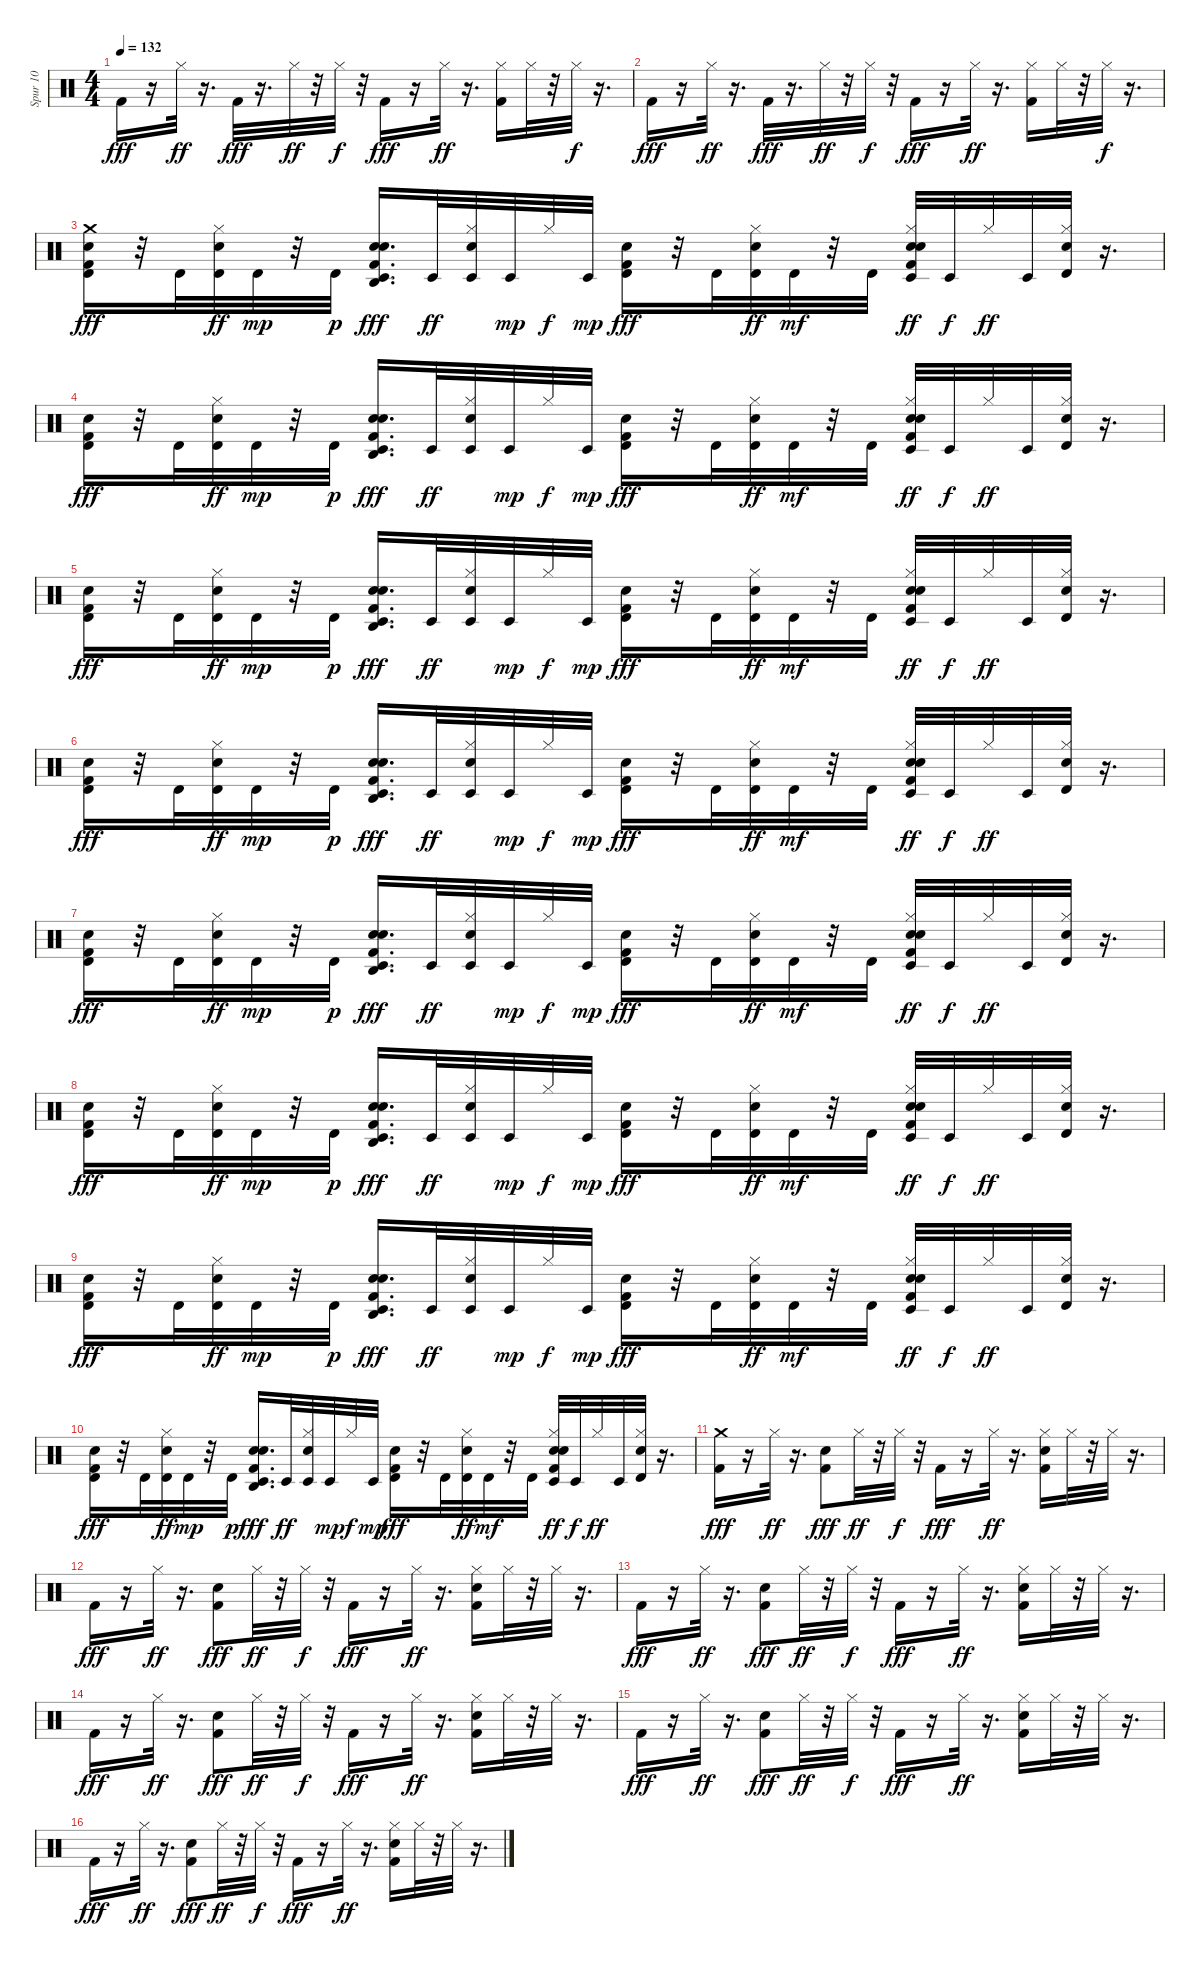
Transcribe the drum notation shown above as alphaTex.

\track ("Spur 10" "Spur 10") {instrument percussion}
\staff {score}
\articulation defaults
\ts (4 4)
\tempo 132
\clef neutral
\ks c "Kick (hit) 2".16{dy fff}
r.16 "Hi-Hat (closed)".32{dy ff} r.16{d} "Kick (hit) 2".32{dy fff} r.16{d} "Hi-Hat (closed)".32{dy ff} r.32 "Hi-Hat (closed)".32{dy f} r.32 "Kick (hit) 2".16{dy fff} r.16 "Hi-Hat (closed)".32{dy ff} r.16{d} ("Kick (hit) 2" "Hi-Hat (closed)").16 "Hi-Hat (closed)".32 r.32 "Hi-Hat (closed)".32{dy f} r.16{d} |
"Kick (hit) 2".16{dy fff} r.16 "Hi-Hat (closed)".32{dy ff} r.16{d} "Kick (hit) 2".32{dy fff} r.16{d} "Hi-Hat (closed)".32{dy ff} r.32 "Hi-Hat (closed)".32{dy f} r.32 "Kick (hit) 2".16{dy fff} r.16 "Hi-Hat (closed)".32{dy ff} r.16{d} ("Kick (hit) 2" "Hi-Hat (closed)").16 "Hi-Hat (closed)".32 r.32 "Hi-Hat (closed)".32{dy f} r.16{d} |
("Crash medium (hit)" "Hand Clap (hit)" "Timbale high (hit)" "Kick (hit) 2").16{dy fff} r.32 "Timbale high (hit)".32 ("Hand Clap (hit)" "Timbale high (hit)" "Hi-Hat (closed)").32{dy ff} "Timbale high (hit)".32{dy mp} r.32 "Timbale high (hit)".32{dy p} ("Hand Clap (hit)" "Timbale low (hit)" "Agogo high (hit)" "Snare (hit) 2" "Kick (hit) 2").16{d dy fff} "Timbale low (hit)".32{dy ff} ("Hand Clap (hit)" "Timbale low (hit)" "Hi-Hat (closed)").32 "Timbale low (hit)".32{dy mp} "Hi-Hat (closed)".32{dy f} "Timbale low (hit)".32{dy mp} ("Hand Clap (hit)" "Timbale high (hit)" "Kick (hit) 2").16{dy fff} r.32 "Timbale high (hit)".32 ("Hand Clap (hit)" "Timbale high (hit)" "Hi-Hat (closed)").32{dy ff} "Timbale high (hit)".32{dy mf} r.32 "Timbale high (hit)".32 ("Hand Clap (hit)" "Timbale low (hit)" "Snare (hit) 2" "Kick (hit) 2" "Hi-Hat (closed)").32{dy ff} "Timbale low (hit)".32{dy f} "Hi-Hat (closed)".32{dy ff} "Timbale low (hit)".32 ("Hand Clap (hit)" "Timbale high (hit)" "Hi-Hat (closed)").32 r.16{d} |
("Hand Clap (hit)" "Timbale high (hit)" "Kick (hit) 2").16{dy fff} r.32 "Timbale high (hit)".32 ("Hand Clap (hit)" "Timbale high (hit)" "Hi-Hat (closed)").32{dy ff} "Timbale high (hit)".32{dy mp} r.32 "Timbale high (hit)".32{dy p} ("Hand Clap (hit)" "Timbale low (hit)" "Agogo high (hit)" "Snare (hit) 2" "Kick (hit) 2").16{d dy fff} "Timbale low (hit)".32{dy ff} ("Hand Clap (hit)" "Timbale low (hit)" "Hi-Hat (closed)").32 "Timbale low (hit)".32{dy mp} "Hi-Hat (closed)".32{dy f} "Timbale low (hit)".32{dy mp} ("Hand Clap (hit)" "Timbale high (hit)" "Kick (hit) 2").16{dy fff} r.32 "Timbale high (hit)".32 ("Hand Clap (hit)" "Timbale high (hit)" "Hi-Hat (closed)").32{dy ff} "Timbale high (hit)".32{dy mf} r.32 "Timbale high (hit)".32 ("Hand Clap (hit)" "Timbale low (hit)" "Snare (hit) 2" "Kick (hit) 2" "Hi-Hat (closed)").32{dy ff} "Timbale low (hit)".32{dy f} "Hi-Hat (closed)".32{dy ff} "Timbale low (hit)".32 ("Hand Clap (hit)" "Timbale high (hit)" "Hi-Hat (closed)").32 r.16{d} |
("Hand Clap (hit)" "Timbale high (hit)" "Kick (hit) 2").16{dy fff} r.32 "Timbale high (hit)".32 ("Hand Clap (hit)" "Timbale high (hit)" "Hi-Hat (closed)").32{dy ff} "Timbale high (hit)".32{dy mp} r.32 "Timbale high (hit)".32{dy p} ("Hand Clap (hit)" "Timbale low (hit)" "Agogo high (hit)" "Snare (hit) 2" "Kick (hit) 2").16{d dy fff} "Timbale low (hit)".32{dy ff} ("Hand Clap (hit)" "Timbale low (hit)" "Hi-Hat (closed)").32 "Timbale low (hit)".32{dy mp} "Hi-Hat (closed)".32{dy f} "Timbale low (hit)".32{dy mp} ("Hand Clap (hit)" "Timbale high (hit)" "Kick (hit) 2").16{dy fff} r.32 "Timbale high (hit)".32 ("Hand Clap (hit)" "Timbale high (hit)" "Hi-Hat (closed)").32{dy ff} "Timbale high (hit)".32{dy mf} r.32 "Timbale high (hit)".32 ("Hand Clap (hit)" "Timbale low (hit)" "Snare (hit) 2" "Kick (hit) 2" "Hi-Hat (closed)").32{dy ff} "Timbale low (hit)".32{dy f} "Hi-Hat (closed)".32{dy ff} "Timbale low (hit)".32 ("Hand Clap (hit)" "Timbale high (hit)" "Hi-Hat (closed)").32 r.16{d} |
("Hand Clap (hit)" "Timbale high (hit)" "Kick (hit) 2").16{dy fff} r.32 "Timbale high (hit)".32 ("Hand Clap (hit)" "Timbale high (hit)" "Hi-Hat (closed)").32{dy ff} "Timbale high (hit)".32{dy mp} r.32 "Timbale high (hit)".32{dy p} ("Hand Clap (hit)" "Timbale low (hit)" "Agogo high (hit)" "Snare (hit) 2" "Kick (hit) 2").16{d dy fff} "Timbale low (hit)".32{dy ff} ("Hand Clap (hit)" "Timbale low (hit)" "Hi-Hat (closed)").32 "Timbale low (hit)".32{dy mp} "Hi-Hat (closed)".32{dy f} "Timbale low (hit)".32{dy mp} ("Hand Clap (hit)" "Timbale high (hit)" "Kick (hit) 2").16{dy fff} r.32 "Timbale high (hit)".32 ("Hand Clap (hit)" "Timbale high (hit)" "Hi-Hat (closed)").32{dy ff} "Timbale high (hit)".32{dy mf} r.32 "Timbale high (hit)".32 ("Hand Clap (hit)" "Timbale low (hit)" "Snare (hit) 2" "Kick (hit) 2" "Hi-Hat (closed)").32{dy ff} "Timbale low (hit)".32{dy f} "Hi-Hat (closed)".32{dy ff} "Timbale low (hit)".32 ("Hand Clap (hit)" "Timbale high (hit)" "Hi-Hat (closed)").32 r.16{d} |
("Hand Clap (hit)" "Timbale high (hit)" "Kick (hit) 2").16{dy fff} r.32 "Timbale high (hit)".32 ("Hand Clap (hit)" "Timbale high (hit)" "Hi-Hat (closed)").32{dy ff} "Timbale high (hit)".32{dy mp} r.32 "Timbale high (hit)".32{dy p} ("Hand Clap (hit)" "Timbale low (hit)" "Agogo high (hit)" "Snare (hit) 2" "Kick (hit) 2").16{d dy fff} "Timbale low (hit)".32{dy ff} ("Hand Clap (hit)" "Timbale low (hit)" "Hi-Hat (closed)").32 "Timbale low (hit)".32{dy mp} "Hi-Hat (closed)".32{dy f} "Timbale low (hit)".32{dy mp} ("Hand Clap (hit)" "Timbale high (hit)" "Kick (hit) 2").16{dy fff} r.32 "Timbale high (hit)".32 ("Hand Clap (hit)" "Timbale high (hit)" "Hi-Hat (closed)").32{dy ff} "Timbale high (hit)".32{dy mf} r.32 "Timbale high (hit)".32 ("Hand Clap (hit)" "Timbale low (hit)" "Snare (hit) 2" "Kick (hit) 2" "Hi-Hat (closed)").32{dy ff} "Timbale low (hit)".32{dy f} "Hi-Hat (closed)".32{dy ff} "Timbale low (hit)".32 ("Hand Clap (hit)" "Timbale high (hit)" "Hi-Hat (closed)").32 r.16{d} |
("Hand Clap (hit)" "Timbale high (hit)" "Kick (hit) 2").16{dy fff} r.32 "Timbale high (hit)".32 ("Hand Clap (hit)" "Timbale high (hit)" "Hi-Hat (closed)").32{dy ff} "Timbale high (hit)".32{dy mp} r.32 "Timbale high (hit)".32{dy p} ("Hand Clap (hit)" "Timbale low (hit)" "Agogo high (hit)" "Snare (hit) 2" "Kick (hit) 2").16{d dy fff} "Timbale low (hit)".32{dy ff} ("Hand Clap (hit)" "Timbale low (hit)" "Hi-Hat (closed)").32 "Timbale low (hit)".32{dy mp} "Hi-Hat (closed)".32{dy f} "Timbale low (hit)".32{dy mp} ("Hand Clap (hit)" "Timbale high (hit)" "Kick (hit) 2").16{dy fff} r.32 "Timbale high (hit)".32 ("Hand Clap (hit)" "Timbale high (hit)" "Hi-Hat (closed)").32{dy ff} "Timbale high (hit)".32{dy mf} r.32 "Timbale high (hit)".32 ("Hand Clap (hit)" "Timbale low (hit)" "Snare (hit) 2" "Kick (hit) 2" "Hi-Hat (closed)").32{dy ff} "Timbale low (hit)".32{dy f} "Hi-Hat (closed)".32{dy ff} "Timbale low (hit)".32 ("Hand Clap (hit)" "Timbale high (hit)" "Hi-Hat (closed)").32 r.16{d} |
("Hand Clap (hit)" "Timbale high (hit)" "Kick (hit) 2").16{dy fff} r.32 "Timbale high (hit)".32 ("Hand Clap (hit)" "Timbale high (hit)" "Hi-Hat (closed)").32{dy ff} "Timbale high (hit)".32{dy mp} r.32 "Timbale high (hit)".32{dy p} ("Hand Clap (hit)" "Timbale low (hit)" "Agogo high (hit)" "Snare (hit) 2" "Kick (hit) 2").16{d dy fff} "Timbale low (hit)".32{dy ff} ("Hand Clap (hit)" "Timbale low (hit)" "Hi-Hat (closed)").32 "Timbale low (hit)".32{dy mp} "Hi-Hat (closed)".32{dy f} "Timbale low (hit)".32{dy mp} ("Hand Clap (hit)" "Timbale high (hit)" "Kick (hit) 2").16{dy fff} r.32 "Timbale high (hit)".32 ("Hand Clap (hit)" "Timbale high (hit)" "Hi-Hat (closed)").32{dy ff} "Timbale high (hit)".32{dy mf} r.32 "Timbale high (hit)".32 ("Hand Clap (hit)" "Timbale low (hit)" "Snare (hit) 2" "Kick (hit) 2" "Hi-Hat (closed)").32{dy ff} "Timbale low (hit)".32{dy f} "Hi-Hat (closed)".32{dy ff} "Timbale low (hit)".32 ("Hand Clap (hit)" "Timbale high (hit)" "Hi-Hat (closed)").32 r.16{d} |
("Hand Clap (hit)" "Timbale high (hit)" "Kick (hit) 2").16{dy fff} r.32 "Timbale high (hit)".32 ("Hand Clap (hit)" "Timbale high (hit)" "Hi-Hat (closed)").32{dy ff} "Timbale high (hit)".32{dy mp} r.32 "Timbale high (hit)".32{dy p} ("Hand Clap (hit)" "Timbale low (hit)" "Agogo high (hit)" "Snare (hit) 2" "Kick (hit) 2").16{d dy fff} "Timbale low (hit)".32{dy ff} ("Hand Clap (hit)" "Timbale low (hit)" "Hi-Hat (closed)").32 "Timbale low (hit)".32{dy mp} "Hi-Hat (closed)".32{dy f} "Timbale low (hit)".32{dy mp} ("Hand Clap (hit)" "Timbale high (hit)" "Kick (hit) 2").16{dy fff} r.32 "Timbale high (hit)".32 ("Hand Clap (hit)" "Timbale high (hit)" "Hi-Hat (closed)").32{dy ff} "Timbale high (hit)".32{dy mf} r.32 "Timbale high (hit)".32 ("Hand Clap (hit)" "Timbale low (hit)" "Snare (hit) 2" "Kick (hit) 2" "Hi-Hat (closed)").32{dy ff} "Timbale low (hit)".32{dy f} "Hi-Hat (closed)".32{dy ff} "Timbale low (hit)".32 ("Hand Clap (hit)" "Timbale high (hit)" "Hi-Hat (closed)").32 r.16{d} |
("Crash medium (hit)" "Kick (hit) 2").16{dy fff} r.16 "Hi-Hat (closed)".32{dy ff} r.16{d} ("Snare (hit) 2" "Kick (hit) 2").8{dy fff} "Hi-Hat (closed)".32{dy ff} r.32 "Hi-Hat (closed)".32{dy f} r.32 "Kick (hit) 2".16{dy fff} r.16 "Hi-Hat (closed)".32{dy ff} r.16{d} ("Snare (hit) 2" "Kick (hit) 2" "Hi-Hat (closed)").16 "Hi-Hat (closed)".32 r.32 "Hi-Hat (closed)".32 r.16{d} |
"Kick (hit) 2".16{dy fff} r.16 "Hi-Hat (closed)".32{dy ff} r.16{d} ("Snare (hit) 2" "Kick (hit) 2").8{dy fff} "Hi-Hat (closed)".32{dy ff} r.32 "Hi-Hat (closed)".32{dy f} r.32 "Kick (hit) 2".16{dy fff} r.16 "Hi-Hat (closed)".32{dy ff} r.16{d} ("Snare (hit) 2" "Kick (hit) 2" "Hi-Hat (closed)").16 "Hi-Hat (closed)".32 r.32 "Hi-Hat (closed)".32 r.16{d} |
"Kick (hit) 2".16{dy fff} r.16 "Hi-Hat (closed)".32{dy ff} r.16{d} ("Snare (hit) 2" "Kick (hit) 2").8{dy fff} "Hi-Hat (closed)".32{dy ff} r.32 "Hi-Hat (closed)".32{dy f} r.32 "Kick (hit) 2".16{dy fff} r.16 "Hi-Hat (closed)".32{dy ff} r.16{d} ("Snare (hit) 2" "Kick (hit) 2" "Hi-Hat (closed)").16 "Hi-Hat (closed)".32 r.32 "Hi-Hat (closed)".32 r.16{d} |
"Kick (hit) 2".16{dy fff} r.16 "Hi-Hat (closed)".32{dy ff} r.16{d} ("Snare (hit) 2" "Kick (hit) 2").8{dy fff} "Hi-Hat (closed)".32{dy ff} r.32 "Hi-Hat (closed)".32{dy f} r.32 "Kick (hit) 2".16{dy fff} r.16 "Hi-Hat (closed)".32{dy ff} r.16{d} ("Snare (hit) 2" "Kick (hit) 2" "Hi-Hat (closed)").16 "Hi-Hat (closed)".32 r.32 "Hi-Hat (closed)".32 r.16{d} |
"Kick (hit) 2".16{dy fff} r.16 "Hi-Hat (closed)".32{dy ff} r.16{d} ("Snare (hit) 2" "Kick (hit) 2").8{dy fff} "Hi-Hat (closed)".32{dy ff} r.32 "Hi-Hat (closed)".32{dy f} r.32 "Kick (hit) 2".16{dy fff} r.16 "Hi-Hat (closed)".32{dy ff} r.16{d} ("Snare (hit) 2" "Kick (hit) 2" "Hi-Hat (closed)").16 "Hi-Hat (closed)".32 r.32 "Hi-Hat (closed)".32 r.16{d} |
"Kick (hit) 2".16{dy fff} r.16 "Hi-Hat (closed)".32{dy ff} r.16{d} ("Snare (hit) 2" "Kick (hit) 2").8{dy fff} "Hi-Hat (closed)".32{dy ff} r.32 "Hi-Hat (closed)".32{dy f} r.32 "Kick (hit) 2".16{dy fff} r.16 "Hi-Hat (closed)".32{dy ff} r.16{d} ("Snare (hit) 2" "Kick (hit) 2" "Hi-Hat (closed)").16 "Hi-Hat (closed)".32 r.32 "Hi-Hat (closed)".32 r.16{d}
